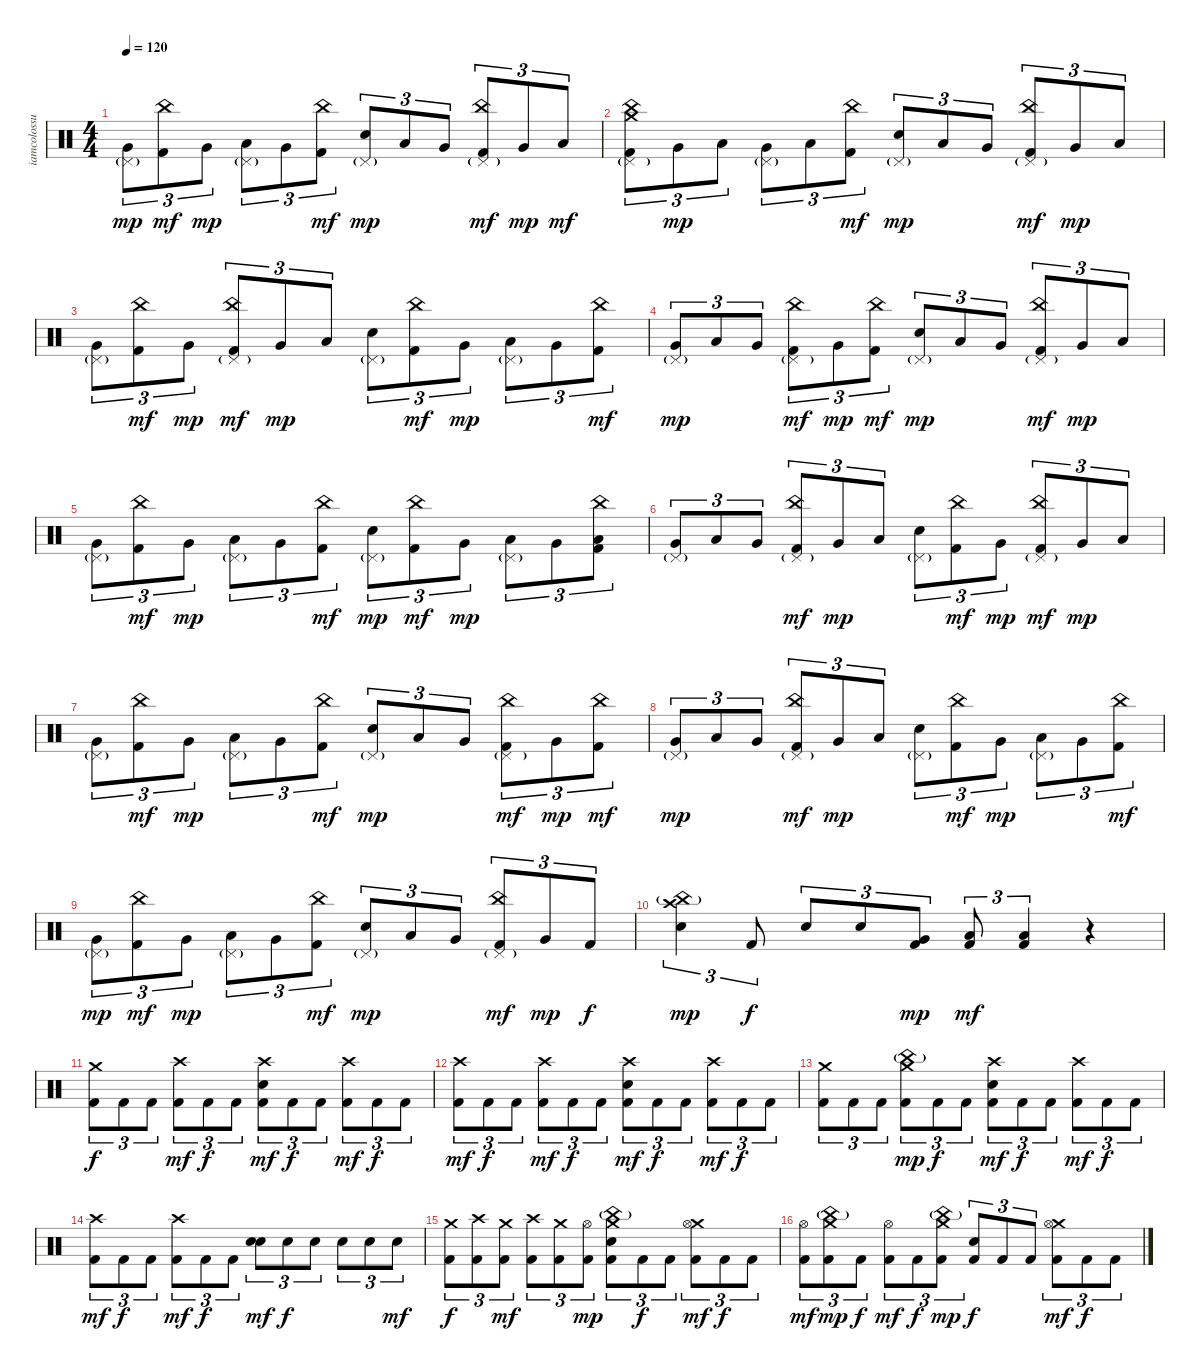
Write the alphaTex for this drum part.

\track ("iamcolossus(Thomas Haake)" "iamcolossu") {instrument percussion}
\staff {score}
\articulation defaults
\ts (4 4)
\tempo 120
\clef neutral
\ks c
("Pedal Hi-Hat (hit)"{g} "Very Low Tom (hit)").8{tu (3 2) dy mp} ("China (hit)" "Kick (hit) 2").8{tu (3 2) dy mf} "Very Low Tom (hit)".8{tu (3 2) dy mp} ("Pedal Hi-Hat (hit)"{g} "Low Floor Tom (hit)").8{tu (3 2)} "Very Low Tom (hit)".8{tu (3 2)} ("China (hit)" "Kick (hit) 2").8{tu (3 2) dy mf} ("Pedal Hi-Hat (hit)"{g} "Electric Snare (hit)").8{tu (3 2) dy mp} "Low Floor Tom (hit)".8{tu (3 2)} "Very Low Tom (hit)".8{tu (3 2)} ("Pedal Hi-Hat (hit)"{g} "China (hit)" "Kick (hit) 2").8{tu (3 2) dy mf} "Very Low Tom (hit)".8{tu (3 2) dy mp} "Low Floor Tom (hit)".8{tu (3 2) dy mf} |
("Pedal Hi-Hat (hit)"{g} "Crash medium (hit)" "China (hit)" "Kick (hit) 2").8{tu (3 2)} "Very Low Tom (hit)".8{tu (3 2) dy mp} "Low Floor Tom (hit)".8{tu (3 2)} ("Pedal Hi-Hat (hit)"{g} "Very Low Tom (hit)").8{tu (3 2)} "Low Floor Tom (hit)".8{tu (3 2)} ("China (hit)" "Kick (hit) 2").8{tu (3 2) dy mf} ("Pedal Hi-Hat (hit)"{g} "Electric Snare (hit)").8{tu (3 2) dy mp} "Low Floor Tom (hit)".8{tu (3 2)} "Very Low Tom (hit)".8{tu (3 2)} ("Pedal Hi-Hat (hit)"{g} "China (hit)" "Kick (hit) 2").8{tu (3 2) dy mf} "Very Low Tom (hit)".8{tu (3 2) dy mp} "Low Floor Tom (hit)".8{tu (3 2)} |
("Pedal Hi-Hat (hit)"{g} "Very Low Tom (hit)").8{tu (3 2)} ("China (hit)" "Kick (hit) 2").8{tu (3 2) dy mf} "Very Low Tom (hit)".8{tu (3 2) dy mp} ("Pedal Hi-Hat (hit)"{g} "China (hit)" "Kick (hit) 2").8{tu (3 2) dy mf} "Very Low Tom (hit)".8{tu (3 2) dy mp} "Low Floor Tom (hit)".8{tu (3 2)} ("Pedal Hi-Hat (hit)"{g} "Electric Snare (hit)").8{tu (3 2)} ("China (hit)" "Kick (hit) 2").8{tu (3 2) dy mf} "Very Low Tom (hit)".8{tu (3 2) dy mp} ("Pedal Hi-Hat (hit)"{g} "Low Floor Tom (hit)").8{tu (3 2)} "Very Low Tom (hit)".8{tu (3 2)} ("China (hit)" "Kick (hit) 2").8{tu (3 2) dy mf} |
("Pedal Hi-Hat (hit)"{g} "Very Low Tom (hit)").8{tu (3 2) dy mp} "Low Floor Tom (hit)".8{tu (3 2)} "Very Low Tom (hit)".8{tu (3 2)} ("Pedal Hi-Hat (hit)"{g} "China (hit)" "Kick (hit) 2").8{tu (3 2) dy mf} "Very Low Tom (hit)".8{tu (3 2) dy mp} ("China (hit)" "Kick (hit) 2").8{tu (3 2) dy mf} ("Pedal Hi-Hat (hit)"{g} "Electric Snare (hit)").8{tu (3 2) dy mp} "Low Floor Tom (hit)".8{tu (3 2)} "Very Low Tom (hit)".8{tu (3 2)} ("Pedal Hi-Hat (hit)"{g} "China (hit)" "Kick (hit) 2").8{tu (3 2) dy mf} "Very Low Tom (hit)".8{tu (3 2) dy mp} "Low Floor Tom (hit)".8{tu (3 2)} |
("Pedal Hi-Hat (hit)"{g} "Very Low Tom (hit)").8{tu (3 2)} ("China (hit)" "Kick (hit) 2").8{tu (3 2) dy mf} "Very Low Tom (hit)".8{tu (3 2) dy mp} ("Pedal Hi-Hat (hit)"{g} "Low Floor Tom (hit)").8{tu (3 2)} "Very Low Tom (hit)".8{tu (3 2)} ("China (hit)" "Kick (hit) 2").8{tu (3 2) dy mf} ("Pedal Hi-Hat (hit)"{g} "Electric Snare (hit)").8{tu (3 2) dy mp} ("China (hit)" "Kick (hit) 2").8{tu (3 2) dy mf} "Very Low Tom (hit)".8{tu (3 2) dy mp} ("Pedal Hi-Hat (hit)"{g} "Low Floor Tom (hit)").8{tu (3 2)} "Very Low Tom (hit)".8{tu (3 2)} ("China (hit)" "Low Floor Tom (hit)" "Kick (hit) 2").8{tu (3 2)} |
("Pedal Hi-Hat (hit)"{g} "Very Low Tom (hit)").8{tu (3 2)} "Low Floor Tom (hit)".8{tu (3 2)} "Very Low Tom (hit)".8{tu (3 2)} ("Pedal Hi-Hat (hit)"{g} "China (hit)" "Kick (hit) 2").8{tu (3 2) dy mf} "Very Low Tom (hit)".8{tu (3 2) dy mp} "Low Floor Tom (hit)".8{tu (3 2)} ("Pedal Hi-Hat (hit)"{g} "Electric Snare (hit)").8{tu (3 2)} ("China (hit)" "Kick (hit) 2").8{tu (3 2) dy mf} "Very Low Tom (hit)".8{tu (3 2) dy mp} ("Pedal Hi-Hat (hit)"{g} "China (hit)" "Kick (hit) 2").8{tu (3 2) dy mf} "Very Low Tom (hit)".8{tu (3 2) dy mp} "Low Floor Tom (hit)".8{tu (3 2)} |
("Pedal Hi-Hat (hit)"{g} "Very Low Tom (hit)").8{tu (3 2)} ("China (hit)" "Kick (hit) 2").8{tu (3 2) dy mf} "Very Low Tom (hit)".8{tu (3 2) dy mp} ("Pedal Hi-Hat (hit)"{g} "Low Floor Tom (hit)").8{tu (3 2)} "Very Low Tom (hit)".8{tu (3 2)} ("China (hit)" "Kick (hit) 2").8{tu (3 2) dy mf} ("Pedal Hi-Hat (hit)"{g} "Electric Snare (hit)").8{tu (3 2) dy mp} "Low Floor Tom (hit)".8{tu (3 2)} "Very Low Tom (hit)".8{tu (3 2)} ("Pedal Hi-Hat (hit)"{g} "China (hit)" "Kick (hit) 2").8{tu (3 2) dy mf} "Very Low Tom (hit)".8{tu (3 2) dy mp} ("China (hit)" "Kick (hit) 2").8{tu (3 2) dy mf} |
("Pedal Hi-Hat (hit)"{g} "Very Low Tom (hit)").8{tu (3 2) dy mp} "Low Floor Tom (hit)".8{tu (3 2)} "Very Low Tom (hit)".8{tu (3 2)} ("Pedal Hi-Hat (hit)"{g} "China (hit)" "Kick (hit) 2").8{tu (3 2) dy mf} "Very Low Tom (hit)".8{tu (3 2) dy mp} "Low Floor Tom (hit)".8{tu (3 2)} ("Pedal Hi-Hat (hit)"{g} "Electric Snare (hit)").8{tu (3 2)} ("China (hit)" "Kick (hit) 2").8{tu (3 2) dy mf} "Very Low Tom (hit)".8{tu (3 2) dy mp} ("Pedal Hi-Hat (hit)"{g} "Low Floor Tom (hit)").8{tu (3 2)} "Very Low Tom (hit)".8{tu (3 2)} ("China (hit)" "Kick (hit) 2").8{tu (3 2) dy mf} |
("Pedal Hi-Hat (hit)"{g} "Very Low Tom (hit)").8{tu (3 2) dy mp} ("China (hit)" "Kick (hit) 2").8{tu (3 2) dy mf} "Very Low Tom (hit)".8{tu (3 2) dy mp} ("Pedal Hi-Hat (hit)"{g} "Low Floor Tom (hit)").8{tu (3 2)} "Very Low Tom (hit)".8{tu (3 2)} ("China (hit)" "Kick (hit) 2").8{tu (3 2) dy mf} ("Pedal Hi-Hat (hit)"{g} "Electric Snare (hit)").8{tu (3 2) dy mp} "Low Floor Tom (hit)".8{tu (3 2)} "Very Low Tom (hit)".8{tu (3 2)} ("Pedal Hi-Hat (hit)"{g} "China (hit)" "Kick (hit) 2").8{tu (3 2) dy mf} "Very Low Tom (hit)".8{tu (3 2) dy mp} "Kick (hit) 2".8{tu (3 2) dy f} |
("Crash high (hit)" "China (hit)"{g} "Electric Snare (hit)").4{tu (3 2) dy mp} "Kick (hit) 2".8{tu (3 2) dy f} "Electric Snare (hit)".8{tu (3 2)} "Electric Snare (hit)".8{tu (3 2)} ("Very Low Tom (hit)" "Kick (hit) 2").8{tu (3 2) dy mp} ("Low Floor Tom (hit)" "Kick (hit) 2").8{tu (3 2) dy mf} ("Low Floor Tom (hit)" "Kick (hit) 2").4{tu (3 2)} r.4 |
("Crash medium (hit)" "Kick (hit) 2").8{tu (3 2) dy f} "Kick (hit) 2".8{tu (3 2)} "Kick (hit) 2".8{tu (3 2)} ("Crash high (hit)" "Kick (hit) 2").8{tu (3 2) dy mf} "Kick (hit) 2".8{tu (3 2) dy f} "Kick (hit) 2".8{tu (3 2)} ("Crash high (hit)" "Electric Snare (hit)" "Kick (hit) 2").8{tu (3 2) dy mf} "Kick (hit) 2".8{tu (3 2) dy f} "Kick (hit) 2".8{tu (3 2)} ("Crash high (hit)" "Kick (hit) 2").8{tu (3 2) dy mf} "Kick (hit) 2".8{tu (3 2) dy f} "Kick (hit) 2".8{tu (3 2)} |
("Crash high (hit)" "Kick (hit) 2").8{tu (3 2) dy mf} "Kick (hit) 2".8{tu (3 2) dy f} "Kick (hit) 2".8{tu (3 2)} ("Crash high (hit)" "Kick (hit) 2").8{tu (3 2) dy mf} "Kick (hit) 2".8{tu (3 2) dy f} "Kick (hit) 2".8{tu (3 2)} ("Crash high (hit)" "Electric Snare (hit)" "Kick (hit) 2").8{tu (3 2) dy mf} "Kick (hit) 2".8{tu (3 2) dy f} "Kick (hit) 2".8{tu (3 2)} ("Crash high (hit)" "Kick (hit) 2").8{tu (3 2) dy mf} "Kick (hit) 2".8{tu (3 2) dy f} "Kick (hit) 2".8{tu (3 2)} |
("Crash medium (hit)" "Kick (hit) 2").8{tu (3 2)} "Kick (hit) 2".8{tu (3 2)} "Kick (hit) 2".8{tu (3 2)} ("Crash medium (hit)" "China (hit)"{g} "Kick (hit) 2").8{tu (3 2) dy mp} "Kick (hit) 2".8{tu (3 2) dy f} "Kick (hit) 2".8{tu (3 2)} ("Crash high (hit)" "Electric Snare (hit)" "Kick (hit) 2").8{tu (3 2) dy mf} "Kick (hit) 2".8{tu (3 2) dy f} "Kick (hit) 2".8{tu (3 2)} ("Crash high (hit)" "Kick (hit) 2").8{tu (3 2) dy mf} "Kick (hit) 2".8{tu (3 2) dy f} "Kick (hit) 2".8{tu (3 2)} |
("Crash high (hit)" "Kick (hit) 2").8{tu (3 2) dy mf} "Kick (hit) 2".8{tu (3 2) dy f} "Kick (hit) 2".8{tu (3 2)} ("Crash high (hit)" "Kick (hit) 2").8{tu (3 2) dy mf} "Kick (hit) 2".8{tu (3 2) dy f} "Kick (hit) 2".8{tu (3 2)} ("Electric Snare (hit)" "Electric Snare (hit)").8{tu (3 2) bd 120 dy mf} "Electric Snare (hit)".8{tu (3 2) dy f} "Electric Snare (hit)".8{tu (3 2)} "Electric Snare (hit)".8{tu (3 2)} "Electric Snare (hit)".8{tu (3 2)} "Electric Snare (hit)".8{tu (3 2) dy mf} |
("Crash medium (hit)" "Kick (hit) 2").8{tu (3 2) dy f} ("Crash high (hit)" "Kick (hit) 2").8{tu (3 2)} ("Crash medium (hit)" "Kick (hit) 2").8{tu (3 2) dy mf} ("Crash high (hit)" "Kick (hit) 2").8{tu (3 2)} ("Crash medium (hit)" "Kick (hit) 2").8{tu (3 2)} ("Hi-Hat (open)" "Kick (hit) 2").8{tu (3 2) dy mp} ("Crash medium (hit)" "China (hit)"{g} "Electric Snare (hit)" "Kick (hit) 2").8{tu (3 2)} "Kick (hit) 2".8{tu (3 2) dy f} "Kick (hit) 2".8{tu (3 2)} ("Crash medium (hit)" "Hi-Hat (open)" "Kick (hit) 2").8{tu (3 2) dy mf} "Kick (hit) 2".8{tu (3 2) dy f} "Kick (hit) 2".8{tu (3 2)} |
("Hi-Hat (open)" "Kick (hit) 2").8{tu (3 2) dy mf} ("Crash medium (hit)" "China (hit)"{g} "Kick (hit) 2").8{tu (3 2) dy mp} "Kick (hit) 2".8{tu (3 2) dy f} ("Hi-Hat (open)" "Kick (hit) 2").8{tu (3 2) dy mf} "Kick (hit) 2".8{tu (3 2) dy f} ("Crash medium (hit)" "China (hit)"{g} "Kick (hit) 2").8{tu (3 2) dy mp} ("Electric Snare (hit)" "Kick (hit) 2").8{tu (3 2) dy f} "Kick (hit) 2".8{tu (3 2)} "Kick (hit) 2".8{tu (3 2)} ("Crash medium (hit)" "Hi-Hat (open)" "Kick (hit) 2").8{tu (3 2) dy mf} "Kick (hit) 2".8{tu (3 2) dy f} "Kick (hit) 2".8{tu (3 2)}
